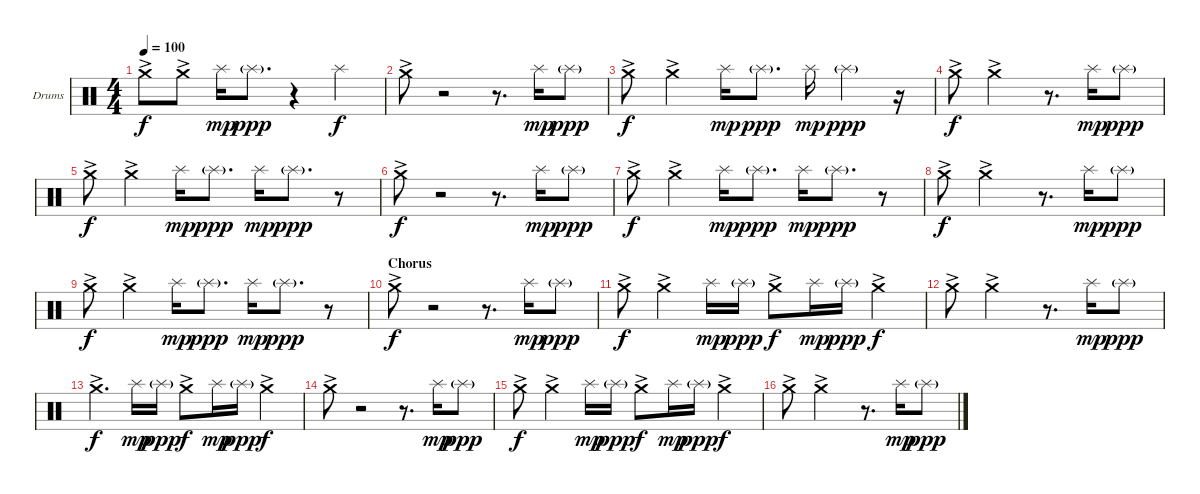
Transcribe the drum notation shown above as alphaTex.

\bracketExtendMode groupsimilarinstruments
\firstSystemTrackNameOrientation horizontal
\otherSystemsTrackNameOrientation horizontal
\track ("Cymbals left" "Drums") {instrument percussion}
\staff {score}
\articulation defaults
\ts (4 4)
\tempo 100
\clef neutral
\ks c "Crash medium (hit)"{ac}.8{dy f} "Crash medium (hit)"{ac}.8 "Splash (hit)".16{dy mp} "Splash (hit)"{g}.8{d dy ppp}
r.4 "Splash (hit)".4{dy f} |
"Crash medium (hit)"{ac}.8 r.2 r.8{d} "Splash (hit)".16{dy mp} "Splash (hit)"{g}.8{dy ppp} |
"Crash medium (hit)"{ac}.8{dy f} "Crash medium (hit)"{ac}.4 "Splash (hit)".16{dy mp} "Splash (hit)"{g}.8{d dy ppp} "Splash (hit)".16{dy mp} "Splash (hit)"{g}.4{dy ppp} r.16 |
"Crash medium (hit)"{ac}.8{dy f} "Crash medium (hit)"{ac}.2 r.8{d} "Splash (hit)".16{dy mp} "Splash (hit)"{g}.8{dy ppp} |
"Crash medium (hit)"{ac}.8{dy f} "Crash medium (hit)"{ac}.4 "Splash (hit)".16{dy mp} "Splash (hit)"{g}.8{d dy ppp} "Splash (hit)".16{dy mp} "Splash (hit)"{g}.8{d dy ppp} r.8 |
"Crash medium (hit)"{ac}.8{dy f} r.2 r.8{d} "Splash (hit)".16{dy mp} "Splash (hit)"{g}.8{dy ppp} |
"Crash medium (hit)"{ac}.8{dy f} "Crash medium (hit)"{ac}.4 "Splash (hit)".16{dy mp} "Splash (hit)"{g}.8{d dy ppp} "Splash (hit)".16{dy mp} "Splash (hit)"{g}.8{d dy ppp} r.8 |
"Crash medium (hit)"{ac}.8{dy f} "Crash medium (hit)"{ac}.2 r.8{d} "Splash (hit)".16{dy mp} "Splash (hit)"{g}.8{dy ppp} |
"Crash medium (hit)"{ac}.8{dy f} "Crash medium (hit)"{ac}.4 "Splash (hit)".16{dy mp} "Splash (hit)"{g}.8{d dy ppp} "Splash (hit)".16{dy mp} "Splash (hit)"{g}.8{d dy ppp} r.8 |
\section ("" "Chorus")
"Crash medium (hit)"{ac}.8{dy f} r.2 r.8{d} "Splash (hit)".16{dy mp} "Splash (hit)"{g}.8{dy ppp} |
"Crash medium (hit)"{ac}.8{dy f} "Crash medium (hit)"{ac}.4 "Splash (hit)".16{dy mp} "Splash (hit)"{g}.16{dy ppp} "Crash medium (hit)"{ac}.8{dy f} "Splash (hit)".16{dy mp} "Splash (hit)"{g}.16{dy ppp} "Crash medium (hit)"{ac}.4{dy f} |
"Crash medium (hit)"{ac}.8 "Crash medium (hit)"{ac}.2 r.8{d} "Splash (hit)".16{dy mp} "Splash (hit)"{g}.8{dy ppp} |
"Crash medium (hit)"{ac}.4{d dy f} "Splash (hit)".16{dy mp} "Splash (hit)"{g}.16{dy ppp} "Crash medium (hit)"{ac}.8{dy f} "Splash (hit)".16{dy mp} "Splash (hit)"{g}.16{dy ppp} "Crash medium (hit)"{ac}.4{dy f} |
"Crash medium (hit)"{ac}.8 r.2 r.8{d} "Splash (hit)".16{dy mp} "Splash (hit)"{g}.8{dy ppp} |
"Crash medium (hit)"{ac}.8{dy f} "Crash medium (hit)"{ac}.4 "Splash (hit)".16{dy mp} "Splash (hit)"{g}.16{dy ppp} "Crash medium (hit)"{ac}.8{dy f} "Splash (hit)".16{dy mp} "Splash (hit)"{g}.16{dy ppp} "Crash medium (hit)"{ac}.4{dy f} |
"Crash medium (hit)"{ac}.8 "Crash medium (hit)"{ac}.2 r.8{d} "Splash (hit)".16{dy mp} "Splash (hit)"{g}.8{dy ppp}
